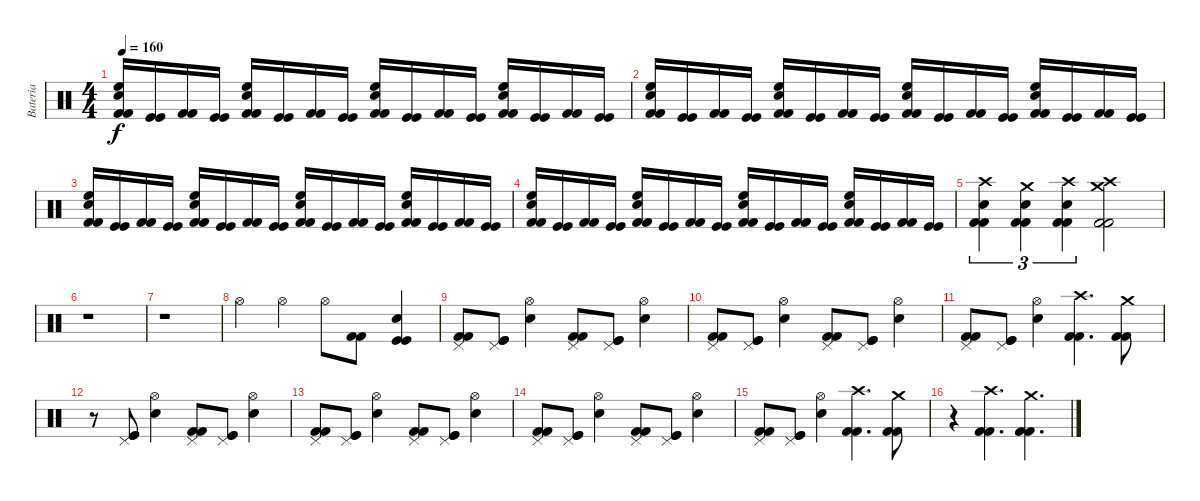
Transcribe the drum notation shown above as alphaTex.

\track ("Bateria" "Bateria") {instrument percussion}
\staff {score}
\articulation defaults
\ts (4 4)
\tempo 160
\clef neutral
\ks c
("Kick (hit) 2" "Kick (hit) 2" "Snare (hit) 2" "High Floor Tom (hit)").16{dy f} ("Kick (hit)" "Kick (hit)").16 ("Kick (hit) 2" "Kick (hit) 2").16 ("Kick (hit)" "Kick (hit)").16 ("Kick (hit) 2" "Kick (hit) 2" "Snare (hit) 2" "High Floor Tom (hit)").16 ("Kick (hit)" "Kick (hit)").16 ("Kick (hit) 2" "Kick (hit) 2").16 ("Kick (hit)" "Kick (hit)").16 ("Kick (hit) 2" "Kick (hit) 2" "Snare (hit) 2" "High Floor Tom (hit)").16 ("Kick (hit)" "Kick (hit)").16 ("Kick (hit) 2" "Kick (hit) 2").16 ("Kick (hit)" "Kick (hit)").16 ("Kick (hit) 2" "Kick (hit) 2" "Snare (hit) 2" "High Floor Tom (hit)").16 ("Kick (hit)" "Kick (hit)").16 ("Kick (hit) 2" "Kick (hit) 2").16 ("Kick (hit)" "Kick (hit)").16 |
("Kick (hit) 2" "Kick (hit) 2" "Snare (hit) 2" "High Floor Tom (hit)").16 ("Kick (hit)" "Kick (hit)").16 ("Kick (hit) 2" "Kick (hit) 2").16 ("Kick (hit)" "Kick (hit)").16 ("Kick (hit) 2" "Kick (hit) 2" "Snare (hit) 2" "High Floor Tom (hit)").16 ("Kick (hit)" "Kick (hit)").16 ("Kick (hit) 2" "Kick (hit) 2").16 ("Kick (hit)" "Kick (hit)").16 ("Kick (hit) 2" "Kick (hit) 2" "Snare (hit) 2" "High Floor Tom (hit)").16 ("Kick (hit)" "Kick (hit)").16 ("Kick (hit) 2" "Kick (hit) 2").16 ("Kick (hit)" "Kick (hit)").16 ("Kick (hit) 2" "Kick (hit) 2" "Snare (hit) 2" "High Floor Tom (hit)").16 ("Kick (hit)" "Kick (hit)").16 ("Kick (hit) 2" "Kick (hit) 2").16 ("Kick (hit)" "Kick (hit)").16 |
("Kick (hit) 2" "Kick (hit) 2" "Snare (hit) 2" "High Floor Tom (hit)").16 ("Kick (hit)" "Kick (hit)").16 ("Kick (hit) 2" "Kick (hit) 2").16 ("Kick (hit)" "Kick (hit)").16 ("Kick (hit) 2" "Kick (hit) 2" "Snare (hit) 2" "High Floor Tom (hit)").16 ("Kick (hit)" "Kick (hit)").16 ("Kick (hit) 2" "Kick (hit) 2").16 ("Kick (hit)" "Kick (hit)").16 ("Kick (hit) 2" "Kick (hit) 2" "Snare (hit) 2" "High Floor Tom (hit)").16 ("Kick (hit)" "Kick (hit)").16 ("Kick (hit) 2" "Kick (hit) 2").16 ("Kick (hit)" "Kick (hit)").16 ("Kick (hit) 2" "Kick (hit) 2" "Snare (hit) 2" "High Floor Tom (hit)").16 ("Kick (hit)" "Kick (hit)").16 ("Kick (hit) 2" "Kick (hit) 2").16 ("Kick (hit)" "Kick (hit)").16 |
("Kick (hit) 2" "Kick (hit) 2" "Snare (hit) 2" "High Floor Tom (hit)").16 ("Kick (hit)" "Kick (hit)").16 ("Kick (hit) 2" "Kick (hit) 2").16 ("Kick (hit)" "Kick (hit)").16 ("Kick (hit) 2" "Kick (hit) 2" "Snare (hit) 2" "High Floor Tom (hit)").16 ("Kick (hit)" "Kick (hit)").16 ("Kick (hit) 2" "Kick (hit) 2").16 ("Kick (hit)" "Kick (hit)").16 ("Kick (hit) 2" "Kick (hit) 2" "Snare (hit) 2" "High Floor Tom (hit)").16 ("Kick (hit)" "Kick (hit)").16 ("Kick (hit) 2" "Kick (hit) 2").16 ("Kick (hit)" "Kick (hit)").16 ("Kick (hit) 2" "Kick (hit) 2" "Snare (hit) 2" "High Floor Tom (hit)").16 ("Kick (hit)" "Kick (hit)").16 ("Kick (hit) 2" "Kick (hit) 2").16 ("Kick (hit)" "Kick (hit)").16 |
("Kick (hit) 2" "Kick (hit) 2" "Snare (hit) 2" "Crash high (hit)").4{tu (3 2)} ("Kick (hit) 2" "Kick (hit) 2" "Snare (hit) 2" "Crash medium (hit)").4{tu (3 2)} ("Kick (hit) 2" "Kick (hit) 2" "Snare (hit) 2" "Crash high (hit)").4{tu (3 2)} ("Kick (hit) 2" "Kick (hit) 2" "Crash high (hit)" "Crash medium (hit)").2 |
r.1 |
r.1 |
"Hi-Hat (open)".4 "Hi-Hat (open)".4 "Hi-Hat (open)".8 ("Kick (hit) 2" "Kick (hit) 2").8 ("Kick (hit)" "Kick (hit)" "Snare (hit) 2").4 |
("Kick (hit) 2" "Kick (hit) 2" "Pedal Hi-Hat (hit)").8 ("Kick (hit)" "Kick (hit)" "Pedal Hi-Hat (hit)").8 ("Snare (hit) 2" "Hi-Hat (open)").4 ("Kick (hit) 2" "Kick (hit) 2" "Pedal Hi-Hat (hit)").8 ("Kick (hit)" "Kick (hit)" "Pedal Hi-Hat (hit)").8 ("Snare (hit) 2" "Hi-Hat (open)").4 |
("Kick (hit) 2" "Kick (hit) 2" "Pedal Hi-Hat (hit)").8 ("Kick (hit)" "Kick (hit)" "Pedal Hi-Hat (hit)").8 ("Snare (hit) 2" "Hi-Hat (open)").4 ("Kick (hit) 2" "Kick (hit) 2" "Pedal Hi-Hat (hit)").8 ("Kick (hit)" "Kick (hit)" "Pedal Hi-Hat (hit)").8 ("Snare (hit) 2" "Hi-Hat (open)").4 |
("Kick (hit) 2" "Kick (hit) 2" "Pedal Hi-Hat (hit)").8 ("Kick (hit)" "Kick (hit)" "Pedal Hi-Hat (hit)").8 ("Snare (hit) 2" "Hi-Hat (open)").4 ("Kick (hit) 2" "Kick (hit) 2" "Crash high (hit)").4{d} ("Kick (hit) 2" "Kick (hit) 2" "Crash medium (hit)").8 |
r.8 ("Kick (hit)" "Kick (hit)" "Pedal Hi-Hat (hit)").8 ("Snare (hit) 2" "Hi-Hat (open)").4 ("Kick (hit) 2" "Kick (hit) 2" "Pedal Hi-Hat (hit)").8 ("Kick (hit)" "Kick (hit)" "Pedal Hi-Hat (hit)").8 ("Snare (hit) 2" "Hi-Hat (open)").4 |
("Kick (hit) 2" "Kick (hit) 2" "Pedal Hi-Hat (hit)").8 ("Kick (hit)" "Kick (hit)" "Pedal Hi-Hat (hit)").8 ("Snare (hit) 2" "Hi-Hat (open)").4 ("Kick (hit) 2" "Kick (hit) 2" "Pedal Hi-Hat (hit)").8 ("Kick (hit)" "Kick (hit)" "Pedal Hi-Hat (hit)").8 ("Snare (hit) 2" "Hi-Hat (open)").4 |
("Kick (hit) 2" "Kick (hit) 2" "Pedal Hi-Hat (hit)").8 ("Kick (hit)" "Kick (hit)" "Pedal Hi-Hat (hit)").8 ("Snare (hit) 2" "Hi-Hat (open)").4 ("Kick (hit) 2" "Kick (hit) 2" "Pedal Hi-Hat (hit)").8 ("Kick (hit)" "Kick (hit)" "Pedal Hi-Hat (hit)").8 ("Snare (hit) 2" "Hi-Hat (open)").4 |
("Kick (hit) 2" "Kick (hit) 2" "Pedal Hi-Hat (hit)").8 ("Kick (hit)" "Kick (hit)" "Pedal Hi-Hat (hit)").8 ("Snare (hit) 2" "Hi-Hat (open)").4 ("Kick (hit) 2" "Kick (hit) 2" "Crash high (hit)").4{d} ("Kick (hit) 2" "Kick (hit) 2" "Crash medium (hit)").8 |
r.4 ("Kick (hit) 2" "Kick (hit) 2" "Crash high (hit)").4{d} ("Kick (hit) 2" "Kick (hit) 2" "Crash medium (hit)").4{d}
